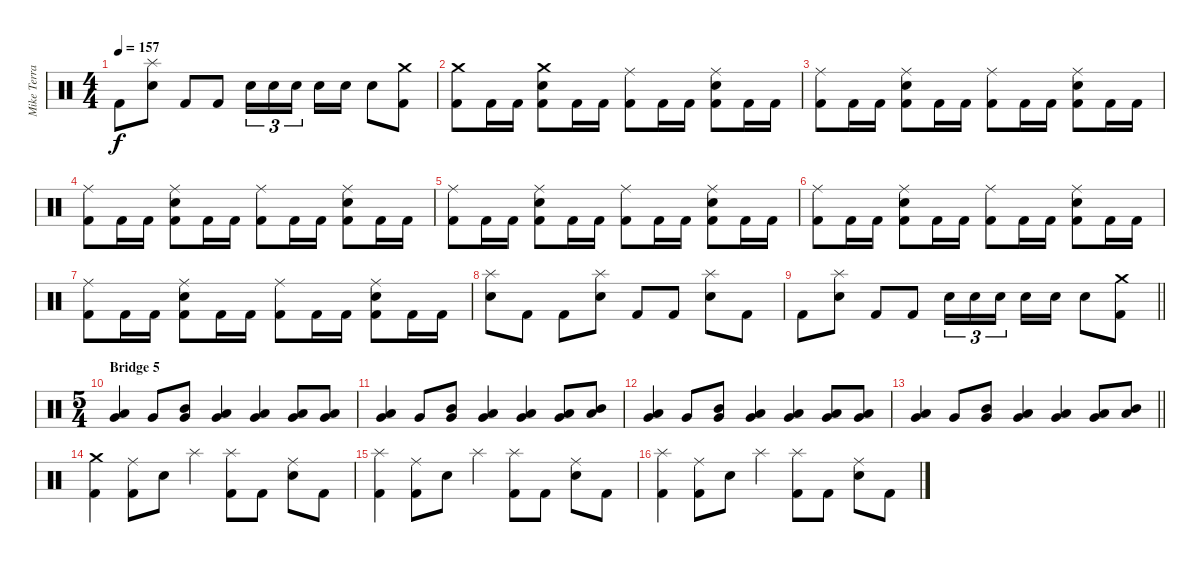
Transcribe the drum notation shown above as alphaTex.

\track ("Mike Terrana" "Mike Terra") {instrument percussion}
\staff {score}
\articulation defaults
\ts (4 4)
\tempo 157
\clef neutral
\ks c "Kick (hit) 2".8{dy f}
("Splash (hit)" "Snare (hit) 2").8 "Kick (hit) 2".8 "Kick (hit) 2".8 "Snare (hit) 2".16{tu (3 2)} "Snare (hit) 2".16{tu (3 2)} "Snare (hit) 2".16{tu (3 2) beam splitsecondary} "Snare (hit) 2".16 "Snare (hit) 2".16 "Snare (hit) 2".8 ("Crash medium (hit)" "Kick (hit) 2").8 |
("Crash medium (hit)" "Kick (hit) 2").8 "Kick (hit) 2".16 "Kick (hit) 2".16 ("Crash medium (hit)" "Snare (hit) 2" "Kick (hit) 2").8 "Kick (hit) 2".16 "Kick (hit) 2".16 ("Ride (middle)" "Kick (hit) 2").8 "Kick (hit) 2".16 "Kick (hit) 2".16 ("Ride (middle)" "Snare (hit) 2" "Kick (hit) 2").8 "Kick (hit) 2".16 "Kick (hit) 2".16 |
("Ride (middle)" "Kick (hit) 2").8 "Kick (hit) 2".16 "Kick (hit) 2".16 ("Ride (middle)" "Snare (hit) 2" "Kick (hit) 2").8 "Kick (hit) 2".16 "Kick (hit) 2".16 ("Ride (middle)" "Kick (hit) 2").8 "Kick (hit) 2".16 "Kick (hit) 2".16 ("Ride (middle)" "Snare (hit) 2" "Kick (hit) 2").8 "Kick (hit) 2".16 "Kick (hit) 2".16 |
("Ride (middle)" "Kick (hit) 2").8 "Kick (hit) 2".16 "Kick (hit) 2".16 ("Ride (middle)" "Snare (hit) 2" "Kick (hit) 2").8 "Kick (hit) 2".16 "Kick (hit) 2".16 ("Ride (middle)" "Kick (hit) 2").8 "Kick (hit) 2".16 "Kick (hit) 2".16 ("Ride (middle)" "Snare (hit) 2" "Kick (hit) 2").8 "Kick (hit) 2".16 "Kick (hit) 2".16 |
("Ride (middle)" "Kick (hit) 2").8 "Kick (hit) 2".16 "Kick (hit) 2".16 ("Ride (middle)" "Snare (hit) 2" "Kick (hit) 2").8 "Kick (hit) 2".16 "Kick (hit) 2".16 ("Ride (middle)" "Kick (hit) 2").8 "Kick (hit) 2".16 "Kick (hit) 2".16 ("Ride (middle)" "Snare (hit) 2" "Kick (hit) 2").8 "Kick (hit) 2".16 "Kick (hit) 2".16 |
("Ride (middle)" "Kick (hit) 2").8 "Kick (hit) 2".16 "Kick (hit) 2".16 ("Ride (middle)" "Snare (hit) 2" "Kick (hit) 2").8 "Kick (hit) 2".16 "Kick (hit) 2".16 ("Ride (middle)" "Kick (hit) 2").8 "Kick (hit) 2".16 "Kick (hit) 2".16 ("Ride (middle)" "Snare (hit) 2" "Kick (hit) 2").8 "Kick (hit) 2".16 "Kick (hit) 2".16 |
("Ride (middle)" "Kick (hit) 2").8 "Kick (hit) 2".16 "Kick (hit) 2".16 ("Ride (middle)" "Snare (hit) 2" "Kick (hit) 2").8 "Kick (hit) 2".16 "Kick (hit) 2".16 ("Ride (middle)" "Kick (hit) 2").8 "Kick (hit) 2".16 "Kick (hit) 2".16 ("Ride (middle)" "Snare (hit) 2" "Kick (hit) 2").8 "Kick (hit) 2".16 "Kick (hit) 2".16 |
("Splash (hit)" "Snare (hit) 2").8 "Kick (hit) 2".8 "Kick (hit) 2".8 ("Splash (hit)" "Snare (hit) 2").8 "Kick (hit) 2".8 "Kick (hit) 2".8 ("Splash (hit)" "Snare (hit) 2").8 "Kick (hit) 2".8 |
\barLineRight lightlight "Kick (hit) 2".8
("Splash (hit)" "Snare (hit) 2").8 "Kick (hit) 2".8 "Kick (hit) 2".8 "Snare (hit) 2".16{tu (3 2)} "Snare (hit) 2".16{tu (3 2)} "Snare (hit) 2".16{tu (3 2) beam splitsecondary} "Snare (hit) 2".16 "Snare (hit) 2".16 "Snare (hit) 2".8 ("Crash medium (hit)" "Kick (hit) 2").8 |
\ts (5 4)
\section ("" "Bridge 5")
("Low Tom (hit)" "Very Low Tom (hit)").4 "Very Low Tom (hit)".8 ("Mid Tom (hit)" "Very Low Tom (hit)").8 ("Low Tom (hit)" "Very Low Tom (hit)").4 ("Low Tom (hit)" "Very Low Tom (hit)").4 ("Low Tom (hit)" "Very Low Tom (hit)").8 ("Very Low Tom (hit)" "Low Tom (hit)").8 |
("Low Tom (hit)" "Very Low Tom (hit)").4 "Very Low Tom (hit)".8 ("Mid Tom (hit)" "Very Low Tom (hit)").8 ("Low Tom (hit)" "Very Low Tom (hit)").4 ("Low Tom (hit)" "Very Low Tom (hit)").4 ("Low Tom (hit)" "Very Low Tom (hit)").8 ("Mid Tom (hit)" "Low Tom (hit)").8 |
("Low Tom (hit)" "Very Low Tom (hit)").4 "Very Low Tom (hit)".8 ("Mid Tom (hit)" "Very Low Tom (hit)").8 ("Low Tom (hit)" "Very Low Tom (hit)").4 ("Low Tom (hit)" "Very Low Tom (hit)").4 ("Low Tom (hit)" "Very Low Tom (hit)").8 ("Very Low Tom (hit)" "Low Tom (hit)").8 |
\barLineRight lightlight
("Low Tom (hit)" "Very Low Tom (hit)").4 "Very Low Tom (hit)".8 ("Mid Tom (hit)" "Very Low Tom (hit)").8 ("Low Tom (hit)" "Very Low Tom (hit)").4 ("Low Tom (hit)" "Very Low Tom (hit)").4 ("Low Tom (hit)" "Very Low Tom (hit)").8 ("Mid Tom (hit)" "Low Tom (hit)").8 |
("Crash medium (hit)" "Kick (hit) 2").4 ("Ride (middle)" "Kick (hit) 2").8 "Snare (hit) 2".8 "Splash (hit)".4 ("Splash (hit)" "Kick (hit) 2").8 "Kick (hit) 2".8 ("Ride (middle)" "Snare (hit) 2").8 "Kick (hit) 2".8 |
("Splash (hit)" "Kick (hit) 2").4 ("Ride (middle)" "Kick (hit) 2").8 "Snare (hit) 2".8 "Splash (hit)".4 ("Splash (hit)" "Kick (hit) 2").8 "Kick (hit) 2".8 ("Ride (middle)" "Snare (hit) 2").8 "Kick (hit) 2".8 |
("Splash (hit)" "Kick (hit) 2").4 ("Ride (middle)" "Kick (hit) 2").8 "Snare (hit) 2".8 "Splash (hit)".4 ("Splash (hit)" "Kick (hit) 2").8 "Kick (hit) 2".8 ("Ride (middle)" "Snare (hit) 2").8 "Kick (hit) 2".8
